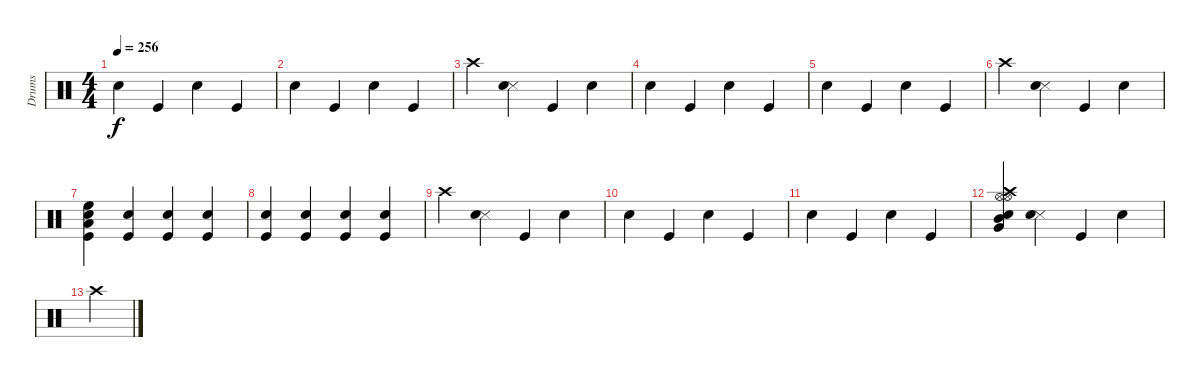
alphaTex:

\track ("Drums" "Drums") {instrument percussion}
\staff {score}
\articulation defaults
\ts (4 4)
\tempo 256
\clef neutral
\ks c "Snare (hit) 2".4{dy f} "Kick (hit)".4 "Snare (hit) 2".4 "Kick (hit)".4
|
"Snare (hit) 2".4 "Kick (hit)".4 "Snare (hit) 2".4 "Kick (hit)".4 |
"Crash high (hit)".4 ("Snare (side stick) 3" "Snare (hit) 2").4 "Kick (hit)".4 "Snare (hit) 2".4 |
"Snare (hit) 2".4 "Kick (hit)".4 "Snare (hit) 2".4 "Kick (hit)".4 |
"Snare (hit) 2".4 "Kick (hit)".4 "Snare (hit) 2".4 "Kick (hit)".4 |
"Crash high (hit)".4 ("Snare (side stick) 3" "Snare (hit) 2").4 "Kick (hit)".4 "Snare (hit) 2".4 |
("High Floor Tom (hit)" "Low Floor Tom (hit)" "Snare (hit) 2" "Kick (hit)").4 ("Snare (hit) 2" "Kick (hit)").4 ("Snare (hit) 2" "Kick (hit)").4 ("Snare (hit) 2" "Kick (hit)").4 |
("Snare (hit) 2" "Kick (hit)").4 ("Snare (hit) 2" "Kick (hit)").4 ("Snare (hit) 2" "Kick (hit)").4 ("Snare (hit) 2" "Kick (hit)").4 |
"Crash high (hit)".4 ("Snare (side stick) 3" "Snare (hit) 2").4 "Kick (hit)".4 "Snare (hit) 2".4 |
"Snare (hit) 2".4 "Kick (hit)".4 "Snare (hit) 2".4 "Kick (hit)".4 |
"Snare (hit) 2".4 "Kick (hit)".4 "Snare (hit) 2".4 "Kick (hit)".4 |
("Crash high (hit)" "Hi-Hat (open)" "Hi-Hat (open)" "Snare (hit) 2" "Mid Tom (hit)" "Very Low Tom (hit)").4 ("Snare (side stick) 3" "Snare (hit) 2").4 "Kick (hit)".4 "Snare (hit) 2".4 |
"Crash high (hit)".4
